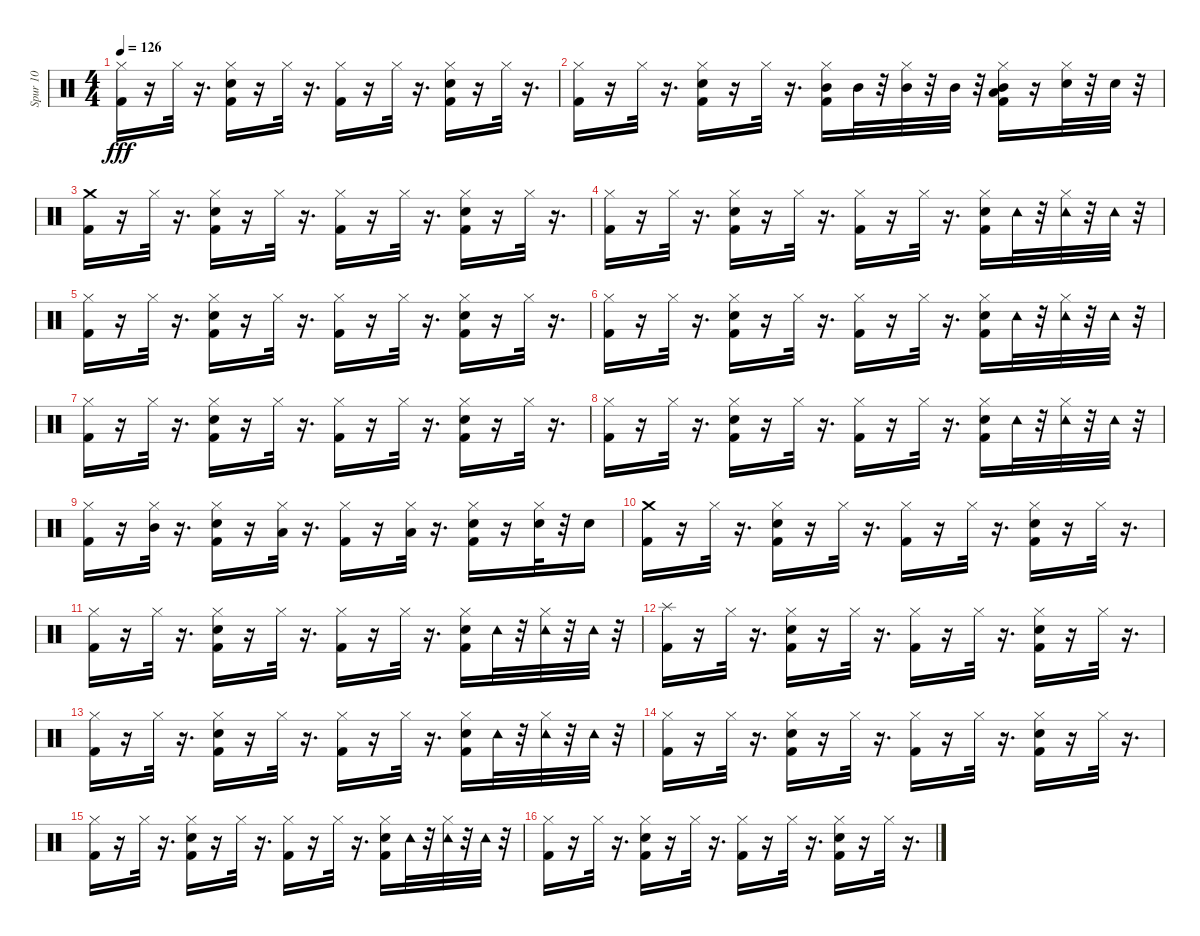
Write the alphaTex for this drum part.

\track ("Spur 10" "Spur 10") {instrument percussion}
\staff {score}
\articulation defaults
\ts (4 4)
\tempo 126
\clef neutral
\ks c
("Hi-Hat (closed)" "Kick (hit) 2").16{dy fff} r.16 "Hi-Hat (closed)".32 r.16{d} ("Hi-Hat (closed)" "Kick (hit) 2" "Snare (hit) 2").16 r.16 "Hi-Hat (closed)".32 r.16{d} ("Hi-Hat (closed)" "Kick (hit) 2").16 r.16 "Hi-Hat (closed)".32 r.16{d} ("Hi-Hat (closed)" "Snare (hit) 2" "Kick (hit) 2").16 r.16 "Hi-Hat (closed)".32 r.16{d} |
("Hi-Hat (closed)" "Kick (hit) 2").16 r.16 "Hi-Hat (closed)".32 r.16{d} ("Hi-Hat (closed)" "Snare (hit) 2" "Kick (hit) 2").16 r.16 "Hi-Hat (closed)".32 r.16{d} ("Hi-Hat (closed)" "Mid Tom (hit)" "Kick (hit) 2").16 "Mid Tom (hit)".32 r.32 ("Hi-Hat (closed)" "Mid Tom (hit)").32 r.32 "Mid Tom (hit)".32 r.32 ("Hi-Hat (closed)" "Mid Tom (hit)" "Low Tom (hit)" "Kick (hit) 2").16 r.16 ("Hi-Hat (closed)" "Snare (hit) 2").32 r.32 "Snare (hit) 2".32 r.32 |
("Crash medium (hit)" "Kick (hit) 2").16 r.16 "Hi-Hat (closed)".32 r.16{d} ("Hi-Hat (closed)" "Kick (hit) 2" "Snare (hit) 2").16 r.16 "Hi-Hat (closed)".32 r.16{d} ("Hi-Hat (closed)" "Kick (hit) 2").16 r.16 "Hi-Hat (closed)".32 r.16{d} ("Hi-Hat (closed)" "Snare (hit) 2" "Kick (hit) 2").16 r.16 "Hi-Hat (closed)".32 r.16{d} |
("Hi-Hat (closed)" "Kick (hit) 2").16 r.16 "Hi-Hat (closed)".32 r.16{d} ("Hi-Hat (closed)" "Snare (hit) 2" "Kick (hit) 2").16 r.16 "Hi-Hat (closed)".32 r.16{d} ("Hi-Hat (closed)" "Kick (hit) 2").16 r.16 "Hi-Hat (closed)".32 r.16{d} ("Hi-Hat (closed)" "Snare (hit) 2" "Kick (hit) 2").16 "Tambourine (hit)".32 r.32 ("Hi-Hat (closed)" "Tambourine (hit)").32 r.32 "Tambourine (hit)".32 r.32 |
("Hi-Hat (closed)" "Kick (hit) 2").16 r.16 "Hi-Hat (closed)".32 r.16{d} ("Hi-Hat (closed)" "Kick (hit) 2" "Snare (hit) 2").16 r.16 "Hi-Hat (closed)".32 r.16{d} ("Hi-Hat (closed)" "Kick (hit) 2").16 r.16 "Hi-Hat (closed)".32 r.16{d} ("Hi-Hat (closed)" "Snare (hit) 2" "Kick (hit) 2").16 r.16 "Hi-Hat (closed)".32 r.16{d} |
("Hi-Hat (closed)" "Kick (hit) 2").16 r.16 "Hi-Hat (closed)".32 r.16{d} ("Hi-Hat (closed)" "Snare (hit) 2" "Kick (hit) 2").16 r.16 "Hi-Hat (closed)".32 r.16{d} ("Hi-Hat (closed)" "Kick (hit) 2").16 r.16 "Hi-Hat (closed)".32 r.16{d} ("Hi-Hat (closed)" "Snare (hit) 2" "Kick (hit) 2").16 "Tambourine (hit)".32 r.32 ("Hi-Hat (closed)" "Tambourine (hit)").32 r.32 "Tambourine (hit)".32 r.32 |
("Hi-Hat (closed)" "Kick (hit) 2").16 r.16 "Hi-Hat (closed)".32 r.16{d} ("Hi-Hat (closed)" "Kick (hit) 2" "Snare (hit) 2").16 r.16 "Hi-Hat (closed)".32 r.16{d} ("Hi-Hat (closed)" "Kick (hit) 2").16 r.16 "Hi-Hat (closed)".32 r.16{d} ("Hi-Hat (closed)" "Snare (hit) 2" "Kick (hit) 2").16 r.16 "Hi-Hat (closed)".32 r.16{d} |
("Hi-Hat (closed)" "Kick (hit) 2").16 r.16 "Hi-Hat (closed)".32 r.16{d} ("Hi-Hat (closed)" "Snare (hit) 2" "Kick (hit) 2").16 r.16 "Hi-Hat (closed)".32 r.16{d} ("Hi-Hat (closed)" "Kick (hit) 2").16 r.16 "Hi-Hat (closed)".32 r.16{d} ("Hi-Hat (closed)" "Snare (hit) 2" "Kick (hit) 2").16 "Tambourine (hit)".32 r.32 ("Hi-Hat (closed)" "Tambourine (hit)").32 r.32 "Tambourine (hit)".32 r.32 |
("Hi-Hat (closed)" "Kick (hit) 2").16 r.16 ("Hi-Hat (closed)" "Mid Tom (hit)").32 r.16{d} ("Hi-Hat (closed)" "Snare (hit) 2" "Kick (hit) 2").16 r.16 ("Hi-Hat (closed)" "Low Tom (hit)").32 r.16{d} ("Hi-Hat (closed)" "Kick (hit) 2").16 r.16 ("Hi-Hat (closed)" "Low Tom (hit)").32 r.16{d} ("Hi-Hat (closed)" "Snare (hit) 2" "Kick (hit) 2").16 r.16 ("Hi-Hat (closed)" "Snare (hit) 2").32 r.32 "Snare (hit) 2".16 |
("Crash medium (hit)" "Kick (hit) 2").16 r.16 "Hi-Hat (closed)".32 r.16{d} ("Hi-Hat (closed)" "Kick (hit) 2" "Snare (hit) 2").16 r.16 "Hi-Hat (closed)".32 r.16{d} ("Hi-Hat (closed)" "Kick (hit) 2").16 r.16 "Hi-Hat (closed)".32 r.16{d} ("Hi-Hat (closed)" "Snare (hit) 2" "Kick (hit) 2").16 r.16 "Hi-Hat (closed)".32 r.16{d} |
("Hi-Hat (closed)" "Kick (hit) 2").16 r.16 "Hi-Hat (closed)".32 r.16{d} ("Hi-Hat (closed)" "Snare (hit) 2" "Kick (hit) 2").16 r.16 "Hi-Hat (closed)".32 r.16{d} ("Hi-Hat (closed)" "Kick (hit) 2").16 r.16 "Hi-Hat (closed)".32 r.16{d} ("Hi-Hat (closed)" "Snare (hit) 2" "Kick (hit) 2").16 "Tambourine (hit)".32 r.32 ("Hi-Hat (closed)" "Tambourine (hit)").32 r.32 "Tambourine (hit)".32 r.32 |
("Splash (hit)" "Kick (hit) 2").16 r.16 "Hi-Hat (closed)".32 r.16{d} ("Hi-Hat (closed)" "Kick (hit) 2" "Snare (hit) 2").16 r.16 "Hi-Hat (closed)".32 r.16{d} ("Hi-Hat (closed)" "Kick (hit) 2").16 r.16 "Hi-Hat (closed)".32 r.16{d} ("Hi-Hat (closed)" "Snare (hit) 2" "Kick (hit) 2").16 r.16 "Hi-Hat (closed)".32 r.16{d} |
("Hi-Hat (closed)" "Kick (hit) 2").16 r.16 "Hi-Hat (closed)".32 r.16{d} ("Hi-Hat (closed)" "Snare (hit) 2" "Kick (hit) 2").16 r.16 "Hi-Hat (closed)".32 r.16{d} ("Hi-Hat (closed)" "Kick (hit) 2").16 r.16 "Hi-Hat (closed)".32 r.16{d} ("Hi-Hat (closed)" "Snare (hit) 2" "Kick (hit) 2").16 "Tambourine (hit)".32 r.32 ("Hi-Hat (closed)" "Tambourine (hit)").32 r.32 "Tambourine (hit)".32 r.32 |
("Hi-Hat (closed)" "Kick (hit) 2").16 r.16 "Hi-Hat (closed)".32 r.16{d} ("Hi-Hat (closed)" "Kick (hit) 2" "Snare (hit) 2").16 r.16 "Hi-Hat (closed)".32 r.16{d} ("Hi-Hat (closed)" "Kick (hit) 2").16 r.16 "Hi-Hat (closed)".32 r.16{d} ("Hi-Hat (closed)" "Snare (hit) 2" "Kick (hit) 2").16 r.16 "Hi-Hat (closed)".32 r.16{d} |
("Hi-Hat (closed)" "Kick (hit) 2").16 r.16 "Hi-Hat (closed)".32 r.16{d} ("Hi-Hat (closed)" "Snare (hit) 2" "Kick (hit) 2").16 r.16 "Hi-Hat (closed)".32 r.16{d} ("Hi-Hat (closed)" "Kick (hit) 2").16 r.16 "Hi-Hat (closed)".32 r.16{d} ("Hi-Hat (closed)" "Snare (hit) 2" "Kick (hit) 2").16 "Tambourine (hit)".32 r.32 ("Hi-Hat (closed)" "Tambourine (hit)").32 r.32 "Tambourine (hit)".32 r.32 |
("Hi-Hat (closed)" "Kick (hit) 2").16 r.16 "Hi-Hat (closed)".32 r.16{d} ("Hi-Hat (closed)" "Kick (hit) 2" "Snare (hit) 2").16 r.16 "Hi-Hat (closed)".32 r.16{d} ("Hi-Hat (closed)" "Kick (hit) 2").16 r.16 "Hi-Hat (closed)".32 r.16{d} ("Hi-Hat (closed)" "Snare (hit) 2" "Kick (hit) 2").16 r.16 "Hi-Hat (closed)".32 r.16{d}
